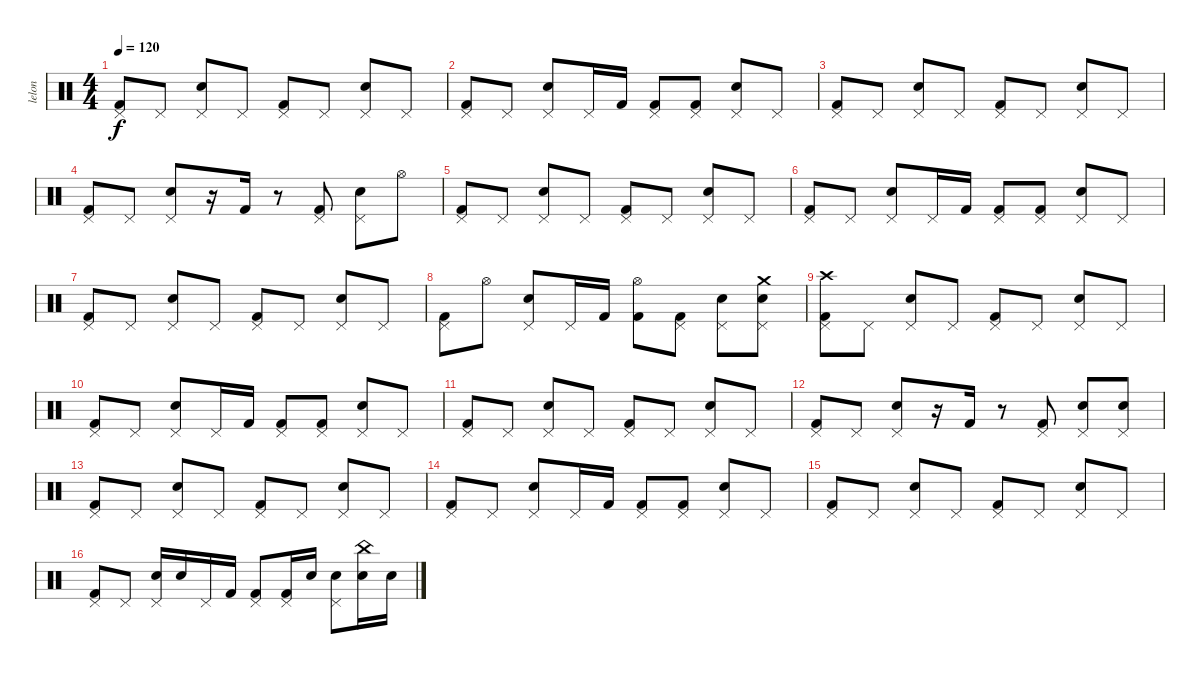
\track ("lelon" "lelon") {instrument percussion}
\staff {score}
\articulation defaults
\ts (4 4)
\tempo 120
\clef neutral
\ks c
("Pedal Hi-Hat (hit)" "Kick (hit) 2").8{dy f} "Pedal Hi-Hat (hit)".8 ("Pedal Hi-Hat (hit)" "Electric Snare (hit)").8 "Pedal Hi-Hat (hit)".8 ("Pedal Hi-Hat (hit)" "Kick (hit) 2").8 "Pedal Hi-Hat (hit)".8 ("Pedal Hi-Hat (hit)" "Electric Snare (hit)").8 "Pedal Hi-Hat (hit)".8 |
("Pedal Hi-Hat (hit)" "Kick (hit) 2").8 "Pedal Hi-Hat (hit)".8 ("Pedal Hi-Hat (hit)" "Electric Snare (hit)").8 "Pedal Hi-Hat (hit)".16 "Kick (hit) 2".16 ("Pedal Hi-Hat (hit)" "Kick (hit) 2").8 ("Pedal Hi-Hat (hit)" "Kick (hit) 2").8 ("Pedal Hi-Hat (hit)" "Electric Snare (hit)").8 "Pedal Hi-Hat (hit)".8 |
("Pedal Hi-Hat (hit)" "Kick (hit) 2").8 "Pedal Hi-Hat (hit)".8 ("Pedal Hi-Hat (hit)" "Electric Snare (hit)").8 "Pedal Hi-Hat (hit)".8 ("Pedal Hi-Hat (hit)" "Kick (hit) 2").8 "Pedal Hi-Hat (hit)".8 ("Pedal Hi-Hat (hit)" "Electric Snare (hit)").8 "Pedal Hi-Hat (hit)".8 |
("Pedal Hi-Hat (hit)" "Kick (hit) 2").8 "Pedal Hi-Hat (hit)".8 ("Pedal Hi-Hat (hit)" "Electric Snare (hit)").8 r.16 "Kick (hit) 2".16 r.8 ("Pedal Hi-Hat (hit)" "Kick (hit) 2").8 ("Pedal Hi-Hat (hit)" "Electric Snare (hit)").8 "Hi-Hat (open)".8 |
("Pedal Hi-Hat (hit)" "Kick (hit) 2").8 "Pedal Hi-Hat (hit)".8 ("Pedal Hi-Hat (hit)" "Electric Snare (hit)").8 "Pedal Hi-Hat (hit)".8 ("Pedal Hi-Hat (hit)" "Kick (hit) 2").8 "Pedal Hi-Hat (hit)".8 ("Pedal Hi-Hat (hit)" "Electric Snare (hit)").8 "Pedal Hi-Hat (hit)".8 |
("Pedal Hi-Hat (hit)" "Kick (hit) 2").8 "Pedal Hi-Hat (hit)".8 ("Pedal Hi-Hat (hit)" "Electric Snare (hit)").8 "Pedal Hi-Hat (hit)".16 "Kick (hit) 2".16 ("Pedal Hi-Hat (hit)" "Kick (hit) 2").8 ("Pedal Hi-Hat (hit)" "Kick (hit) 2").8 ("Pedal Hi-Hat (hit)" "Electric Snare (hit)").8 "Pedal Hi-Hat (hit)".8 |
("Pedal Hi-Hat (hit)" "Kick (hit) 2").8 "Pedal Hi-Hat (hit)".8 ("Pedal Hi-Hat (hit)" "Electric Snare (hit)").8 "Pedal Hi-Hat (hit)".8 ("Pedal Hi-Hat (hit)" "Kick (hit) 2").8 "Pedal Hi-Hat (hit)".8 ("Pedal Hi-Hat (hit)" "Electric Snare (hit)").8 "Pedal Hi-Hat (hit)".8 |
("Pedal Hi-Hat (hit)" "Kick (hit) 2").8 "Hi-Hat (open)".8 ("Pedal Hi-Hat (hit)" "Electric Snare (hit)").8 "Pedal Hi-Hat (hit)".16 "Kick (hit) 2".16 ("Hi-Hat (open)" "Kick (hit) 2").8 ("Pedal Hi-Hat (hit)" "Kick (hit) 2").8 ("Pedal Hi-Hat (hit)" "Electric Snare (hit)").8 ("Crash medium (hit)" "Pedal Hi-Hat (hit)" "Electric Snare (hit)").8 |
("Crash high (hit)" "Pedal Hi-Hat (hit)" "Kick (hit) 2").8 "Pedal Hi-Hat (hit)".8 ("Pedal Hi-Hat (hit)" "Electric Snare (hit)").8 "Pedal Hi-Hat (hit)".8 ("Pedal Hi-Hat (hit)" "Kick (hit) 2").8 "Pedal Hi-Hat (hit)".8 ("Pedal Hi-Hat (hit)" "Electric Snare (hit)").8 "Pedal Hi-Hat (hit)".8 |
("Pedal Hi-Hat (hit)" "Kick (hit) 2").8 "Pedal Hi-Hat (hit)".8 ("Pedal Hi-Hat (hit)" "Electric Snare (hit)").8 "Pedal Hi-Hat (hit)".16 "Kick (hit) 2".16 ("Pedal Hi-Hat (hit)" "Kick (hit) 2").8 ("Pedal Hi-Hat (hit)" "Kick (hit) 2").8 ("Pedal Hi-Hat (hit)" "Electric Snare (hit)").8 "Pedal Hi-Hat (hit)".8 |
("Pedal Hi-Hat (hit)" "Kick (hit) 2").8 "Pedal Hi-Hat (hit)".8 ("Pedal Hi-Hat (hit)" "Electric Snare (hit)").8 "Pedal Hi-Hat (hit)".8 ("Pedal Hi-Hat (hit)" "Kick (hit) 2").8 "Pedal Hi-Hat (hit)".8 ("Pedal Hi-Hat (hit)" "Electric Snare (hit)").8 "Pedal Hi-Hat (hit)".8 |
("Pedal Hi-Hat (hit)" "Kick (hit) 2").8 "Pedal Hi-Hat (hit)".8 ("Pedal Hi-Hat (hit)" "Electric Snare (hit)").8 r.16 "Kick (hit) 2".16 r.8 ("Pedal Hi-Hat (hit)" "Kick (hit) 2").8 ("Pedal Hi-Hat (hit)" "Electric Snare (hit)").8 ("Pedal Hi-Hat (hit)" "Electric Snare (hit)").8 |
("Pedal Hi-Hat (hit)" "Kick (hit) 2").8 "Pedal Hi-Hat (hit)".8 ("Pedal Hi-Hat (hit)" "Electric Snare (hit)").8 "Pedal Hi-Hat (hit)".8 ("Pedal Hi-Hat (hit)" "Kick (hit) 2").8 "Pedal Hi-Hat (hit)".8 ("Pedal Hi-Hat (hit)" "Electric Snare (hit)").8 "Pedal Hi-Hat (hit)".8 |
("Pedal Hi-Hat (hit)" "Kick (hit) 2").8 "Pedal Hi-Hat (hit)".8 ("Pedal Hi-Hat (hit)" "Electric Snare (hit)").8 "Pedal Hi-Hat (hit)".16 "Kick (hit) 2".16 ("Pedal Hi-Hat (hit)" "Kick (hit) 2").8 ("Pedal Hi-Hat (hit)" "Kick (hit) 2").8 ("Pedal Hi-Hat (hit)" "Electric Snare (hit)").8 "Pedal Hi-Hat (hit)".8 |
("Pedal Hi-Hat (hit)" "Kick (hit) 2").8 "Pedal Hi-Hat (hit)".8 ("Pedal Hi-Hat (hit)" "Electric Snare (hit)").8 "Pedal Hi-Hat (hit)".8 ("Pedal Hi-Hat (hit)" "Kick (hit) 2").8 "Pedal Hi-Hat (hit)".8 ("Pedal Hi-Hat (hit)" "Electric Snare (hit)").8 "Pedal Hi-Hat (hit)".8 |
("Pedal Hi-Hat (hit)" "Kick (hit) 2").8 "Pedal Hi-Hat (hit)".8 ("Pedal Hi-Hat (hit)" "Electric Snare (hit)").16 "Electric Snare (hit)".16 "Pedal Hi-Hat (hit)".16 "Kick (hit) 2".16 ("Pedal Hi-Hat (hit)" "Kick (hit) 2").8 ("Pedal Hi-Hat (hit)" "Kick (hit) 2").16 "Electric Snare (hit)".16 ("Pedal Hi-Hat (hit)" "Electric Snare (hit)").8 ("China (hit)" "Electric Snare (hit)").16 "Electric Snare (hit)".16
